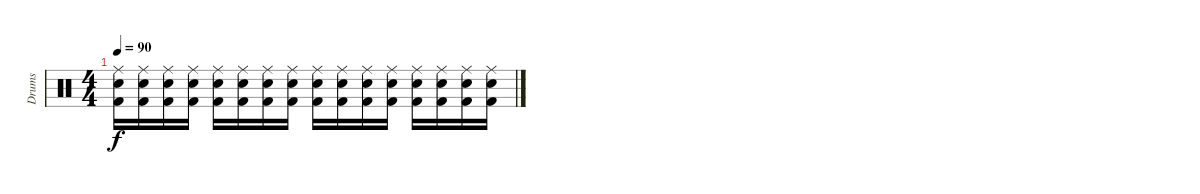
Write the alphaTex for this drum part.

\track ("Drums" "Drums") {instrument percussion}
\staff {score}
\articulation defaults
\ts (4 4)
\tempo 90
\clef neutral
\ks c
("Ride (middle)" "Snare (hit) 2" "Kick (hit) 2").16{dy f} ("Ride (middle)" "Snare (hit) 2" "Kick (hit) 2").16 ("Ride (middle)" "Snare (hit) 2" "Kick (hit) 2").16 ("Ride (middle)" "Snare (hit) 2" "Kick (hit) 2").16 ("Ride (middle)" "Snare (hit) 2" "Kick (hit) 2").16 ("Ride (middle)" "Snare (hit) 2" "Kick (hit) 2").16 ("Ride (middle)" "Snare (hit) 2" "Kick (hit) 2").16 ("Ride (middle)" "Snare (hit) 2" "Kick (hit) 2").16 ("Ride (middle)" "Snare (hit) 2" "Kick (hit) 2").16 ("Ride (middle)" "Snare (hit) 2" "Kick (hit) 2").16 ("Ride (middle)" "Snare (hit) 2" "Kick (hit) 2").16 ("Ride (middle)" "Snare (hit) 2" "Kick (hit) 2").16 ("Ride (middle)" "Snare (hit) 2" "Kick (hit) 2").16 ("Ride (middle)" "Snare (hit) 2" "Kick (hit) 2").16 ("Ride (middle)" "Snare (hit) 2" "Kick (hit) 2").16 ("Ride (middle)" "Snare (hit) 2" "Kick (hit) 2").16
